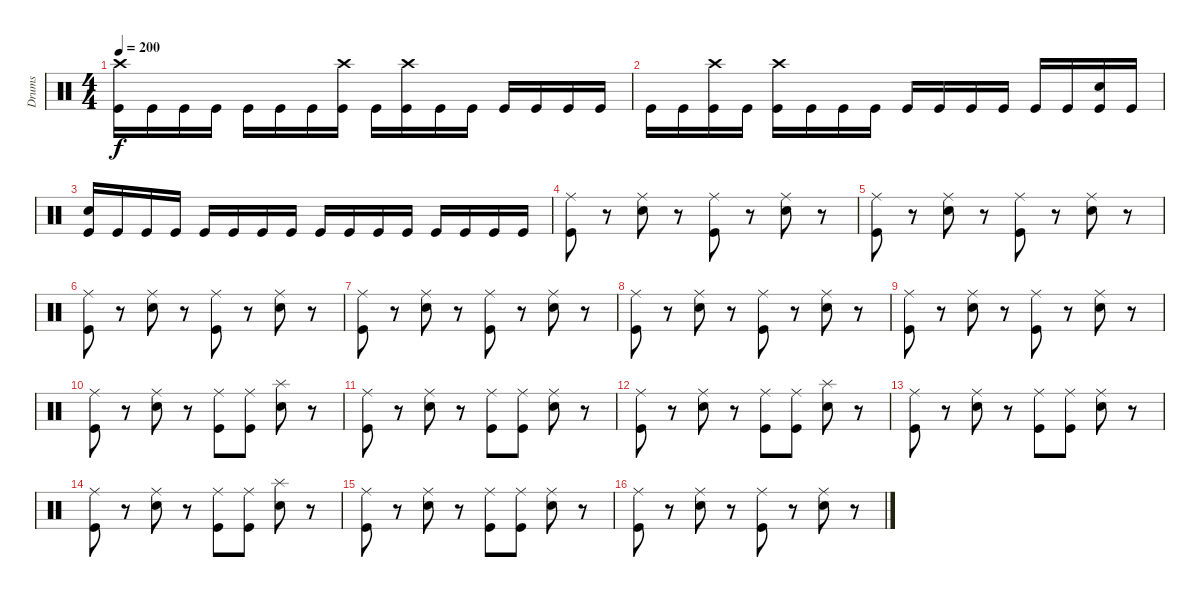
\track ("Drums" "Drums") {instrument percussion}
\staff {score}
\articulation defaults
\ts (4 4)
\tempo 200
\clef neutral
\ks c
("Crash high (hit)" "Kick (hit)").16{dy f} "Kick (hit)".16 "Kick (hit)".16 "Kick (hit)".16 "Kick (hit)".16 "Kick (hit)".16 "Kick (hit)".16 ("Crash high (hit)" "Kick (hit)").16 "Kick (hit)".16 ("Crash high (hit)" "Kick (hit)").16 "Kick (hit)".16 "Kick (hit)".16 "Kick (hit)".16 "Kick (hit)".16 "Kick (hit)".16 "Kick (hit)".16 |
"Kick (hit)".16 "Kick (hit)".16 ("Crash high (hit)" "Kick (hit)").16 "Kick (hit)".16 ("Crash high (hit)" "Kick (hit)").16 "Kick (hit)".16 "Kick (hit)".16 "Kick (hit)".16 "Kick (hit)".16 "Kick (hit)".16 "Kick (hit)".16 "Kick (hit)".16 "Kick (hit)".16 "Kick (hit)".16 ("Snare (hit) 2" "Kick (hit)").16 "Kick (hit)".16 |
("Snare (hit) 2" "Kick (hit)").16 "Kick (hit)".16 "Kick (hit)".16 "Kick (hit)".16 "Kick (hit)".16 "Kick (hit)".16 "Kick (hit)".16 "Kick (hit)".16 "Kick (hit)".16 "Kick (hit)".16 "Kick (hit)".16 "Kick (hit)".16 "Kick (hit)".16 "Kick (hit)".16 "Kick (hit)".16 "Kick (hit)".16 |
("Ride (middle)" "Kick (hit)").8 r.8 ("Ride (middle)" "Snare (hit) 2").8 r.8 ("Ride (middle)" "Kick (hit)").8 r.8 ("Ride (middle)" "Snare (hit) 2").8 r.8 |
("Ride (middle)" "Kick (hit)").8 r.8 ("Ride (middle)" "Snare (hit) 2").8 r.8 ("Ride (middle)" "Kick (hit)").8 r.8 ("Ride (middle)" "Snare (hit) 2").8 r.8 |
("Ride (middle)" "Kick (hit)").8 r.8 ("Ride (middle)" "Snare (hit) 2").8 r.8 ("Ride (middle)" "Kick (hit)").8 r.8 ("Ride (middle)" "Snare (hit) 2").8 r.8 |
("Ride (middle)" "Kick (hit)").8 r.8 ("Ride (middle)" "Snare (hit) 2").8 r.8 ("Ride (middle)" "Kick (hit)").8 r.8 ("Ride (middle)" "Snare (hit) 2").8 r.8 |
("Ride (middle)" "Kick (hit)").8 r.8 ("Ride (middle)" "Snare (hit) 2").8 r.8 ("Ride (middle)" "Kick (hit)").8 r.8 ("Ride (middle)" "Snare (hit) 2").8 r.8 |
("Ride (middle)" "Kick (hit)").8 r.8 ("Ride (middle)" "Snare (hit) 2").8 r.8 ("Ride (middle)" "Kick (hit)").8 r.8 ("Ride (middle)" "Snare (hit) 2").8 r.8 |
("Ride (middle)" "Kick (hit)").8 r.8 ("Ride (middle)" "Snare (hit) 2").8 r.8 ("Ride (middle)" "Kick (hit)").8 ("Ride (middle)" "Kick (hit)").8 ("Splash (hit)" "Snare (hit) 2").8 r.8 |
("Ride (middle)" "Kick (hit)").8 r.8 ("Ride (middle)" "Snare (hit) 2").8 r.8 ("Ride (middle)" "Kick (hit)").8 ("Ride (middle)" "Kick (hit)").8 ("Ride (middle)" "Snare (hit) 2").8 r.8 |
("Ride (middle)" "Kick (hit)").8 r.8 ("Ride (middle)" "Snare (hit) 2").8 r.8 ("Ride (middle)" "Kick (hit)").8 ("Ride (middle)" "Kick (hit)").8 ("Splash (hit)" "Snare (hit) 2").8 r.8 |
("Ride (middle)" "Kick (hit)").8 r.8 ("Ride (middle)" "Snare (hit) 2").8 r.8 ("Ride (middle)" "Kick (hit)").8 ("Ride (middle)" "Kick (hit)").8 ("Ride (middle)" "Snare (hit) 2").8 r.8 |
("Ride (middle)" "Kick (hit)").8 r.8 ("Ride (middle)" "Snare (hit) 2").8 r.8 ("Ride (middle)" "Kick (hit)").8 ("Ride (middle)" "Kick (hit)").8 ("Splash (hit)" "Snare (hit) 2").8 r.8 |
("Ride (middle)" "Kick (hit)").8 r.8 ("Ride (middle)" "Snare (hit) 2").8 r.8 ("Ride (middle)" "Kick (hit)").8 ("Ride (middle)" "Kick (hit)").8 ("Ride (middle)" "Snare (hit) 2").8 r.8 |
("Ride (middle)" "Kick (hit)").8 r.8 ("Ride (middle)" "Snare (hit) 2").8 r.8 ("Ride (middle)" "Kick (hit)").8 r.8 ("Ride (middle)" "Snare (hit) 2").8 r.8
